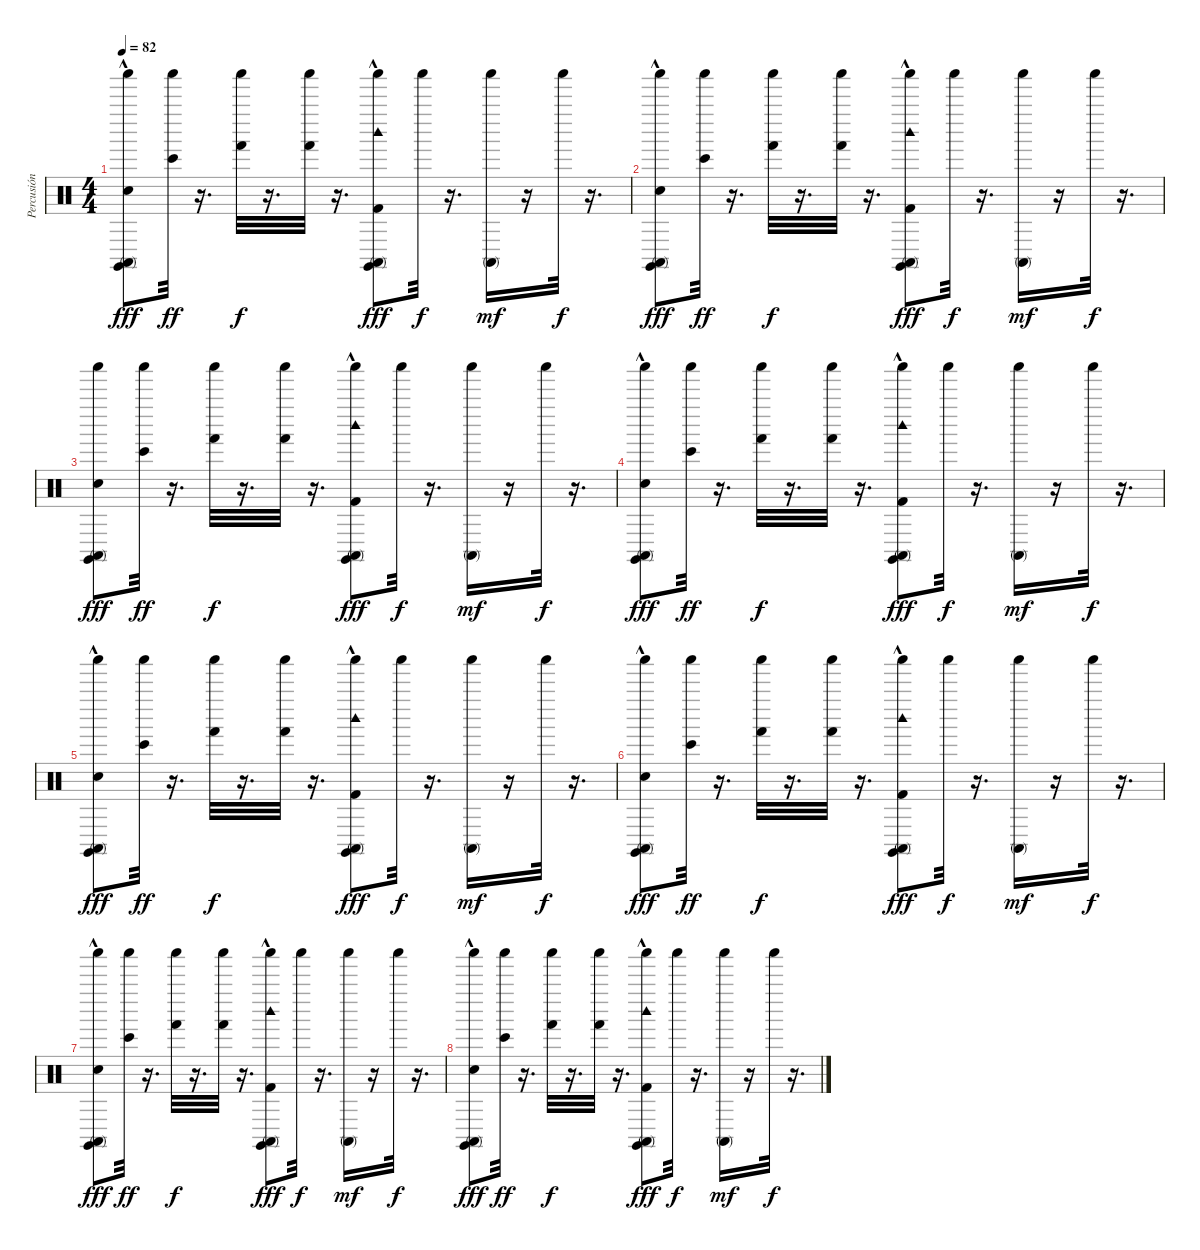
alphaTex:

\track ("Percusión" "Percusión") {instrument percussion}
\staff {score}
\articulation defaults
\ts (4 4)
\tempo 82
\clef neutral
\ks c
("Claves (hit)" "Shaker (hit)" "Conga high (mute)" "Electric Snare (hit)"{hac}).8{dy fff} ("Shaker (hit)" "Bongo High (hit)").32{dy ff} r.16{d} ("Shaker (hit)" "Hand (hit)").32{dy f} r.16{d} ("Shaker (hit)" "Hand (hit)").32 r.16{d} ("Woodblock high (hit)" "Conga high (mute)" "Shaker (hit)" "Claves (hit)" "Kick (hit) 2"{hac}).8{dy fff} "Shaker (hit)".32{dy f} r.16{d} ("Shaker (hit)" "Conga high (mute)").16{dy mf} r.16 "Shaker (hit)".32{dy f} r.16{d} |
("Claves (hit)" "Shaker (hit)" "Conga high (mute)" "Electric Snare (hit)"{hac}).8{dy fff} ("Shaker (hit)" "Bongo High (hit)").32{dy ff} r.16{d} ("Shaker (hit)" "Hand (hit)").32{dy f} r.16{d} ("Shaker (hit)" "Hand (hit)").32 r.16{d} ("Woodblock high (hit)" "Conga high (mute)" "Shaker (hit)" "Claves (hit)" "Kick (hit) 2"{hac}).8{dy fff} "Shaker (hit)".32{dy f} r.16{d} ("Shaker (hit)" "Conga high (mute)").16{dy mf} r.16 "Shaker (hit)".32{dy f} r.16{d} |
("Claves (hit)" "Shaker (hit)" "Conga high (mute)" "Electric Snare (hit)").8{dy fff} ("Shaker (hit)" "Bongo High (hit)").32{dy ff} r.16{d} ("Shaker (hit)" "Hand (hit)").32{dy f} r.16{d} ("Shaker (hit)" "Hand (hit)").32 r.16{d} ("Woodblock high (hit)" "Conga high (mute)" "Shaker (hit)" "Claves (hit)" "Kick (hit) 2"{hac}).8{dy fff} "Shaker (hit)".32{dy f} r.16{d} ("Shaker (hit)" "Conga high (mute)").16{dy mf} r.16 "Shaker (hit)".32{dy f} r.16{d} |
("Claves (hit)" "Shaker (hit)" "Conga high (mute)" "Electric Snare (hit)"{hac}).8{dy fff} ("Shaker (hit)" "Bongo High (hit)").32{dy ff} r.16{d} ("Shaker (hit)" "Hand (hit)").32{dy f} r.16{d} ("Shaker (hit)" "Hand (hit)").32 r.16{d} ("Woodblock high (hit)" "Conga high (mute)" "Shaker (hit)" "Claves (hit)" "Kick (hit) 2"{hac}).8{dy fff} "Shaker (hit)".32{dy f} r.16{d} ("Shaker (hit)" "Conga high (mute)").16{dy mf} r.16 "Shaker (hit)".32{dy f} r.16{d} |
("Claves (hit)" "Shaker (hit)" "Conga high (mute)" "Electric Snare (hit)"{hac}).8{dy fff} ("Shaker (hit)" "Bongo High (hit)").32{dy ff} r.16{d} ("Shaker (hit)" "Hand (hit)").32{dy f} r.16{d} ("Shaker (hit)" "Hand (hit)").32 r.16{d} ("Woodblock high (hit)" "Conga high (mute)" "Shaker (hit)" "Claves (hit)" "Kick (hit) 2"{hac}).8{dy fff} "Shaker (hit)".32{dy f} r.16{d} ("Shaker (hit)" "Conga high (mute)").16{dy mf} r.16 "Shaker (hit)".32{dy f} r.16{d} |
("Claves (hit)" "Shaker (hit)" "Conga high (mute)" "Electric Snare (hit)"{hac}).8{dy fff} ("Shaker (hit)" "Bongo High (hit)").32{dy ff} r.16{d} ("Shaker (hit)" "Hand (hit)").32{dy f} r.16{d} ("Shaker (hit)" "Hand (hit)").32 r.16{d} ("Woodblock high (hit)" "Conga high (mute)" "Shaker (hit)" "Claves (hit)" "Kick (hit) 2"{hac}).8{dy fff} "Shaker (hit)".32{dy f} r.16{d} ("Shaker (hit)" "Conga high (mute)").16{dy mf} r.16 "Shaker (hit)".32{dy f} r.16{d} |
("Claves (hit)" "Shaker (hit)" "Conga high (mute)" "Electric Snare (hit)"{hac}).8{dy fff} ("Shaker (hit)" "Bongo High (hit)").32{dy ff} r.16{d} ("Shaker (hit)" "Hand (hit)").32{dy f} r.16{d} ("Shaker (hit)" "Hand (hit)").32 r.16{d} ("Woodblock high (hit)" "Conga high (mute)" "Shaker (hit)" "Claves (hit)" "Kick (hit) 2"{hac}).8{dy fff} "Shaker (hit)".32{dy f} r.16{d} ("Shaker (hit)" "Conga high (mute)").16{dy mf} r.16 "Shaker (hit)".32{dy f} r.16{d} |
("Claves (hit)" "Shaker (hit)" "Conga high (mute)" "Electric Snare (hit)"{hac}).8{dy fff} ("Shaker (hit)" "Bongo High (hit)").32{dy ff} r.16{d} ("Shaker (hit)" "Hand (hit)").32{dy f} r.16{d} ("Shaker (hit)" "Hand (hit)").32 r.16{d} ("Woodblock high (hit)" "Conga high (mute)" "Shaker (hit)" "Claves (hit)" "Kick (hit) 2"{hac}).8{dy fff} "Shaker (hit)".32{dy f} r.16{d} ("Shaker (hit)" "Conga high (mute)").16{dy mf} r.16 "Shaker (hit)".32{dy f} r.16{d}
